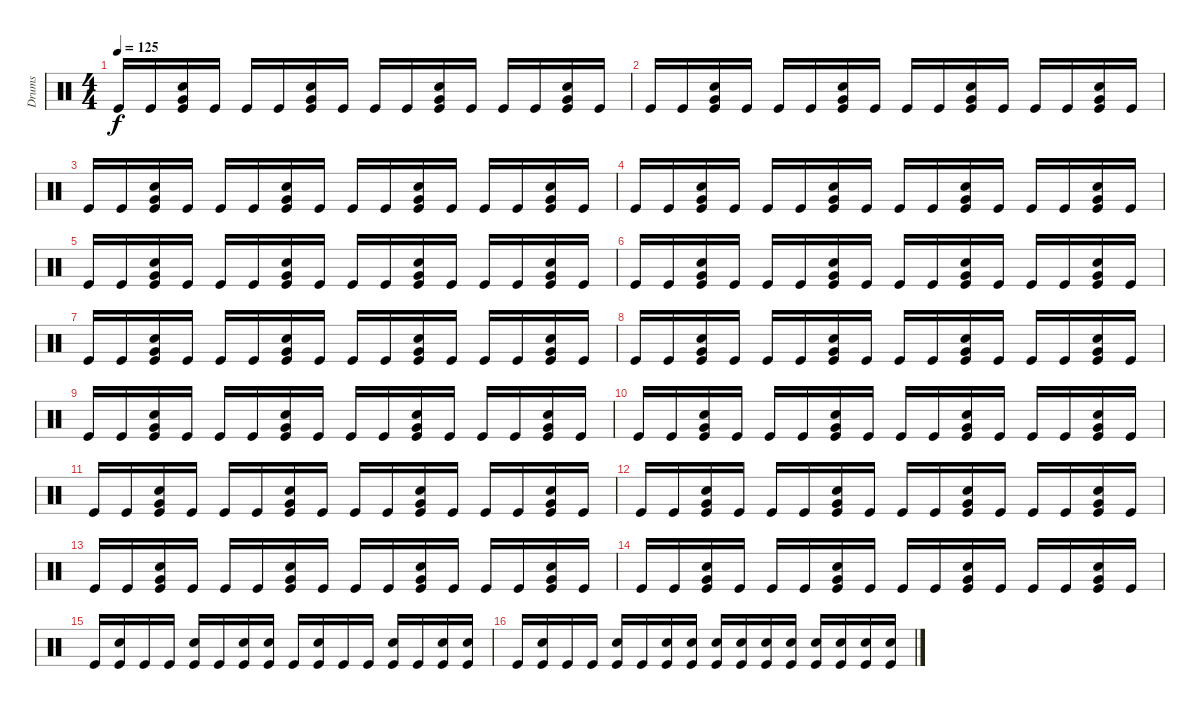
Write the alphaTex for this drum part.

\track ("Drums" "Drums") {instrument percussion}
\staff {score}
\articulation defaults
\ts (4 4)
\tempo 125
\clef neutral
\ks c "Kick (hit)".16{dy f} "Kick (hit)".16
("Very Low Tom (hit)" "Electric Snare (hit)" "Kick (hit)").16 "Kick (hit)".16 "Kick (hit)".16 "Kick (hit)".16 ("Very Low Tom (hit)" "Electric Snare (hit)" "Kick (hit)").16 "Kick (hit)".16 "Kick (hit)".16 "Kick (hit)".16 ("Very Low Tom (hit)" "Electric Snare (hit)" "Kick (hit)").16 "Kick (hit)".16 "Kick (hit)".16 "Kick (hit)".16 ("Very Low Tom (hit)" "Electric Snare (hit)" "Kick (hit)").16 "Kick (hit)".16 |
"Kick (hit)".16 "Kick (hit)".16 ("Very Low Tom (hit)" "Electric Snare (hit)" "Kick (hit)").16 "Kick (hit)".16 "Kick (hit)".16 "Kick (hit)".16 ("Very Low Tom (hit)" "Electric Snare (hit)" "Kick (hit)").16 "Kick (hit)".16 "Kick (hit)".16 "Kick (hit)".16 ("Very Low Tom (hit)" "Electric Snare (hit)" "Kick (hit)").16 "Kick (hit)".16 "Kick (hit)".16 "Kick (hit)".16 ("Very Low Tom (hit)" "Electric Snare (hit)" "Kick (hit)").16 "Kick (hit)".16 |
"Kick (hit)".16 "Kick (hit)".16 ("Very Low Tom (hit)" "Electric Snare (hit)" "Kick (hit)").16 "Kick (hit)".16 "Kick (hit)".16 "Kick (hit)".16 ("Very Low Tom (hit)" "Electric Snare (hit)" "Kick (hit)").16 "Kick (hit)".16 "Kick (hit)".16 "Kick (hit)".16 ("Very Low Tom (hit)" "Electric Snare (hit)" "Kick (hit)").16 "Kick (hit)".16 "Kick (hit)".16 "Kick (hit)".16 ("Very Low Tom (hit)" "Electric Snare (hit)" "Kick (hit)").16 "Kick (hit)".16 |
"Kick (hit)".16 "Kick (hit)".16 ("Very Low Tom (hit)" "Electric Snare (hit)" "Kick (hit)").16 "Kick (hit)".16 "Kick (hit)".16 "Kick (hit)".16 ("Very Low Tom (hit)" "Electric Snare (hit)" "Kick (hit)").16 "Kick (hit)".16 "Kick (hit)".16 "Kick (hit)".16 ("Very Low Tom (hit)" "Electric Snare (hit)" "Kick (hit)").16 "Kick (hit)".16 "Kick (hit)".16 "Kick (hit)".16 ("Very Low Tom (hit)" "Electric Snare (hit)" "Kick (hit)").16 "Kick (hit)".16 |
"Kick (hit)".16 "Kick (hit)".16 ("Very Low Tom (hit)" "Electric Snare (hit)" "Kick (hit)").16 "Kick (hit)".16 "Kick (hit)".16 "Kick (hit)".16 ("Very Low Tom (hit)" "Electric Snare (hit)" "Kick (hit)").16 "Kick (hit)".16 "Kick (hit)".16 "Kick (hit)".16 ("Very Low Tom (hit)" "Electric Snare (hit)" "Kick (hit)").16 "Kick (hit)".16 "Kick (hit)".16 "Kick (hit)".16 ("Very Low Tom (hit)" "Electric Snare (hit)" "Kick (hit)").16 "Kick (hit)".16 |
"Kick (hit)".16 "Kick (hit)".16 ("Very Low Tom (hit)" "Electric Snare (hit)" "Kick (hit)").16 "Kick (hit)".16 "Kick (hit)".16 "Kick (hit)".16 ("Very Low Tom (hit)" "Electric Snare (hit)" "Kick (hit)").16 "Kick (hit)".16 "Kick (hit)".16 "Kick (hit)".16 ("Very Low Tom (hit)" "Electric Snare (hit)" "Kick (hit)").16 "Kick (hit)".16 "Kick (hit)".16 "Kick (hit)".16 ("Very Low Tom (hit)" "Electric Snare (hit)" "Kick (hit)").16 "Kick (hit)".16 |
"Kick (hit)".16 "Kick (hit)".16 ("Very Low Tom (hit)" "Electric Snare (hit)" "Kick (hit)").16 "Kick (hit)".16 "Kick (hit)".16 "Kick (hit)".16 ("Very Low Tom (hit)" "Electric Snare (hit)" "Kick (hit)").16 "Kick (hit)".16 "Kick (hit)".16 "Kick (hit)".16 ("Very Low Tom (hit)" "Electric Snare (hit)" "Kick (hit)").16 "Kick (hit)".16 "Kick (hit)".16 "Kick (hit)".16 ("Very Low Tom (hit)" "Electric Snare (hit)" "Kick (hit)").16 "Kick (hit)".16 |
"Kick (hit)".16 "Kick (hit)".16 ("Very Low Tom (hit)" "Electric Snare (hit)" "Kick (hit)").16 "Kick (hit)".16 "Kick (hit)".16 "Kick (hit)".16 ("Very Low Tom (hit)" "Electric Snare (hit)" "Kick (hit)").16 "Kick (hit)".16 "Kick (hit)".16 "Kick (hit)".16 ("Very Low Tom (hit)" "Electric Snare (hit)" "Kick (hit)").16 "Kick (hit)".16 "Kick (hit)".16 "Kick (hit)".16 ("Very Low Tom (hit)" "Electric Snare (hit)" "Kick (hit)").16 "Kick (hit)".16 |
"Kick (hit)".16 "Kick (hit)".16 ("Very Low Tom (hit)" "Electric Snare (hit)" "Kick (hit)").16 "Kick (hit)".16 "Kick (hit)".16 "Kick (hit)".16 ("Very Low Tom (hit)" "Electric Snare (hit)" "Kick (hit)").16 "Kick (hit)".16 "Kick (hit)".16 "Kick (hit)".16 ("Very Low Tom (hit)" "Electric Snare (hit)" "Kick (hit)").16 "Kick (hit)".16 "Kick (hit)".16 "Kick (hit)".16 ("Very Low Tom (hit)" "Electric Snare (hit)" "Kick (hit)").16 "Kick (hit)".16 |
"Kick (hit)".16 "Kick (hit)".16 ("Very Low Tom (hit)" "Electric Snare (hit)" "Kick (hit)").16 "Kick (hit)".16 "Kick (hit)".16 "Kick (hit)".16 ("Very Low Tom (hit)" "Electric Snare (hit)" "Kick (hit)").16 "Kick (hit)".16 "Kick (hit)".16 "Kick (hit)".16 ("Very Low Tom (hit)" "Electric Snare (hit)" "Kick (hit)").16 "Kick (hit)".16 "Kick (hit)".16 "Kick (hit)".16 ("Very Low Tom (hit)" "Electric Snare (hit)" "Kick (hit)").16 "Kick (hit)".16 |
"Kick (hit)".16 "Kick (hit)".16 ("Very Low Tom (hit)" "Electric Snare (hit)" "Kick (hit)").16 "Kick (hit)".16 "Kick (hit)".16 "Kick (hit)".16 ("Very Low Tom (hit)" "Electric Snare (hit)" "Kick (hit)").16 "Kick (hit)".16 "Kick (hit)".16 "Kick (hit)".16 ("Very Low Tom (hit)" "Electric Snare (hit)" "Kick (hit)").16 "Kick (hit)".16 "Kick (hit)".16 "Kick (hit)".16 ("Very Low Tom (hit)" "Electric Snare (hit)" "Kick (hit)").16 "Kick (hit)".16 |
"Kick (hit)".16 "Kick (hit)".16 ("Very Low Tom (hit)" "Electric Snare (hit)" "Kick (hit)").16 "Kick (hit)".16 "Kick (hit)".16 "Kick (hit)".16 ("Very Low Tom (hit)" "Electric Snare (hit)" "Kick (hit)").16 "Kick (hit)".16 "Kick (hit)".16 "Kick (hit)".16 ("Very Low Tom (hit)" "Electric Snare (hit)" "Kick (hit)").16 "Kick (hit)".16 "Kick (hit)".16 "Kick (hit)".16 ("Very Low Tom (hit)" "Electric Snare (hit)" "Kick (hit)").16 "Kick (hit)".16 |
"Kick (hit)".16 "Kick (hit)".16 ("Very Low Tom (hit)" "Electric Snare (hit)" "Kick (hit)").16 "Kick (hit)".16 "Kick (hit)".16 "Kick (hit)".16 ("Very Low Tom (hit)" "Electric Snare (hit)" "Kick (hit)").16 "Kick (hit)".16 "Kick (hit)".16 "Kick (hit)".16 ("Very Low Tom (hit)" "Electric Snare (hit)" "Kick (hit)").16 "Kick (hit)".16 "Kick (hit)".16 "Kick (hit)".16 ("Very Low Tom (hit)" "Electric Snare (hit)" "Kick (hit)").16 "Kick (hit)".16 |
"Kick (hit)".16 "Kick (hit)".16 ("Very Low Tom (hit)" "Electric Snare (hit)" "Kick (hit)").16 "Kick (hit)".16 "Kick (hit)".16 "Kick (hit)".16 ("Very Low Tom (hit)" "Electric Snare (hit)" "Kick (hit)").16 "Kick (hit)".16 "Kick (hit)".16 "Kick (hit)".16 ("Very Low Tom (hit)" "Electric Snare (hit)" "Kick (hit)").16 "Kick (hit)".16 "Kick (hit)".16 "Kick (hit)".16 ("Very Low Tom (hit)" "Electric Snare (hit)" "Kick (hit)").16 "Kick (hit)".16 |
"Kick (hit)".16 ("Electric Snare (hit)" "Kick (hit)").16 "Kick (hit)".16 "Kick (hit)".16 ("Electric Snare (hit)" "Kick (hit)").16 "Kick (hit)".16 ("Electric Snare (hit)" "Kick (hit)").16 ("Electric Snare (hit)" "Kick (hit)").16 "Kick (hit)".16 ("Electric Snare (hit)" "Kick (hit)").16 "Kick (hit)".16 "Kick (hit)".16 ("Electric Snare (hit)" "Kick (hit)").16 "Kick (hit)".16 ("Electric Snare (hit)" "Kick (hit)").16 ("Electric Snare (hit)" "Kick (hit)").16 |
"Kick (hit)".16 ("Electric Snare (hit)" "Kick (hit)").16 "Kick (hit)".16 "Kick (hit)".16 ("Electric Snare (hit)" "Kick (hit)").16 "Kick (hit)".16 ("Electric Snare (hit)" "Kick (hit)").16 ("Electric Snare (hit)" "Kick (hit)").16 ("Electric Snare (hit)" "Kick (hit)").16 ("Electric Snare (hit)" "Kick (hit)").16 ("Electric Snare (hit)" "Kick (hit)").16 ("Electric Snare (hit)" "Kick (hit)").16 ("Electric Snare (hit)" "Kick (hit)").16 ("Electric Snare (hit)" "Kick (hit)").16 ("Electric Snare (hit)" "Kick (hit)").16 ("Electric Snare (hit)" "Kick (hit)").16
